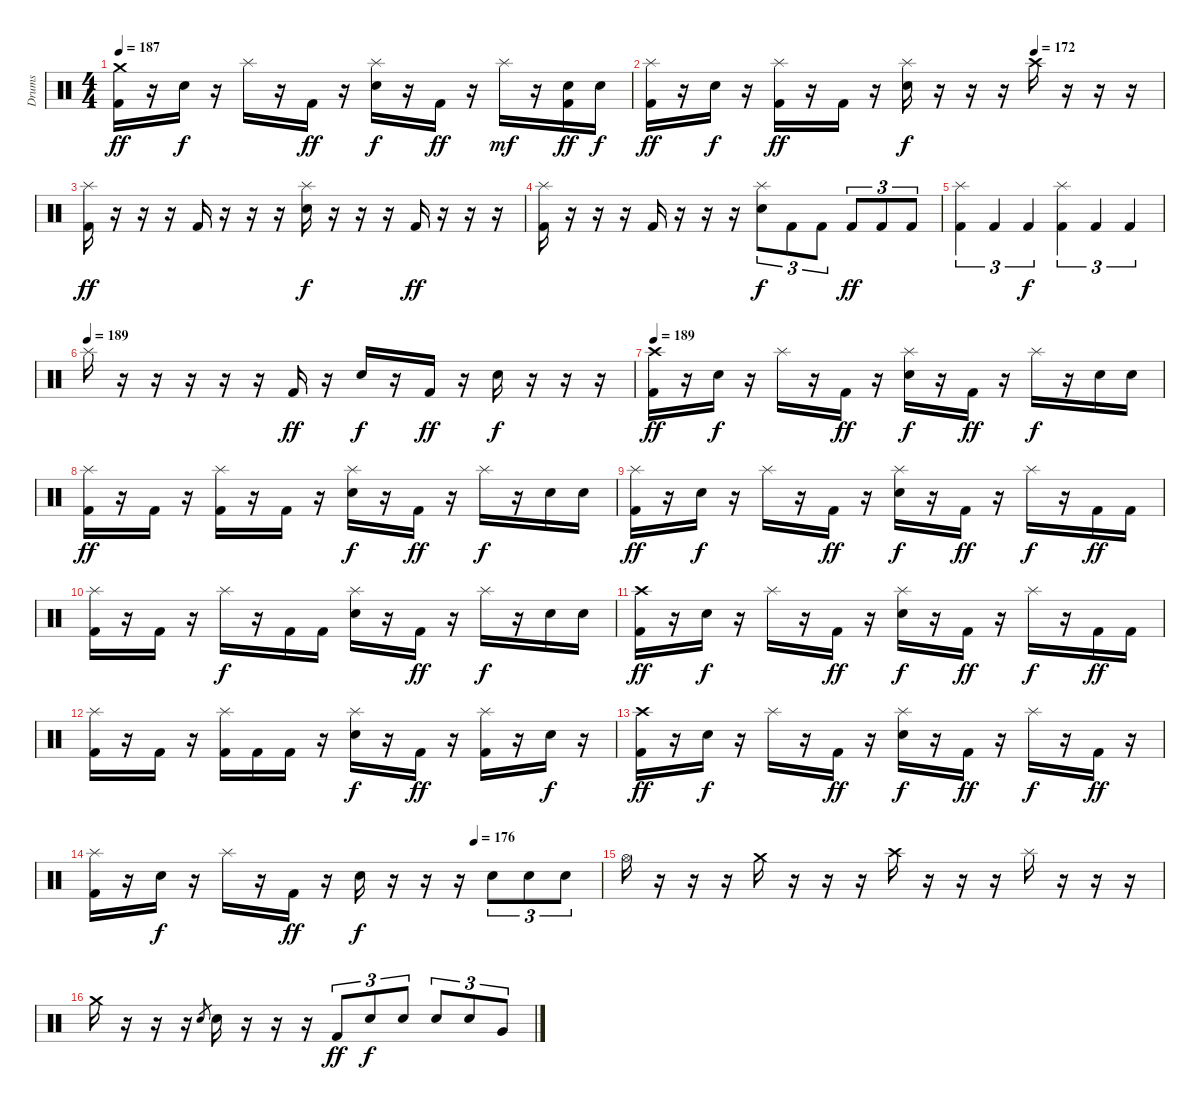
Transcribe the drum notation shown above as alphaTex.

\track ("Drums" "Drums") {instrument percussion}
\staff {score}
\articulation defaults
\ts (4 4)
\tempo 187
\clef neutral
\ks c
("Crash medium (hit)" "Kick (hit) 2").16{dy ff} r.16 "Electric Snare (hit)".16{dy f} r.16 "Splash (hit)".16 r.16 "Kick (hit) 2".16{dy ff} r.16 ("Splash (hit)" "Electric Snare (hit)").16{dy f} r.16 "Kick (hit) 2".16{dy ff} r.16 "Splash (hit)".16{dy mf} r.16 ("Electric Snare (hit)" "Kick (hit) 2").16{dy ff} "Electric Snare (hit)".16{dy f} |
\tempo (172 0.75)
("Splash (hit)" "Kick (hit) 2").16{dy ff} r.16 "Electric Snare (hit)".16{dy f} r.16 ("Splash (hit)" "Kick (hit) 2").16{dy ff} r.16 "Kick (hit) 2".16 r.16 ("Splash (hit)" "Electric Snare (hit)").16{dy f} r.16 r.16 r.16 "Crash high (hit)".16 r.16 r.16 r.16 |
("Splash (hit)" "Kick (hit) 2").16{dy ff} r.16 r.16 r.16 "Kick (hit) 2".16 r.16 r.16 r.16 ("Splash (hit)" "Electric Snare (hit)").16{dy f} r.16 r.16 r.16 "Kick (hit) 2".16{dy ff} r.16 r.16 r.16 |
("Splash (hit)" "Kick (hit) 2").16 r.16 r.16 r.16 "Kick (hit) 2".16 r.16 r.16 r.16 ("Splash (hit)" "Electric Snare (hit)").8{tu (3 2) dy f} "Kick (hit) 2".8{tu (3 2)} "Kick (hit) 2".8{tu (3 2)} "Kick (hit) 2".8{tu (3 2) dy ff} "Kick (hit) 2".8{tu (3 2)} "Kick (hit) 2".8{tu (3 2)} |
("Splash (hit)" "Kick (hit) 2").4{tu (3 2)} "Kick (hit) 2".4{tu (3 2)} "Kick (hit) 2".4{tu (3 2) dy f} ("Splash (hit)" "Kick (hit) 2").4{tu (3 2)} "Kick (hit) 2".4{tu (3 2)} "Kick (hit) 2".4{tu (3 2)} |
\tempo (189)
"Splash (hit)".16 r.16 r.16 r.16 r.16 r.16 "Kick (hit) 2".16{dy ff} r.16 "Electric Snare (hit)".16{dy f} r.16 "Kick (hit) 2".16{dy ff} r.16 "Electric Snare (hit)".16{dy f} r.16 r.16 r.16 |
\tempo 189
("Crash high (hit)" "Kick (hit) 2").16{dy ff} r.16 "Electric Snare (hit)".16{dy f} r.16 "Splash (hit)".16 r.16 "Kick (hit) 2".16{dy ff} r.16 ("Splash (hit)" "Electric Snare (hit)").16{dy f} r.16 "Kick (hit) 2".16{dy ff} r.16 "Splash (hit)".16{dy f} r.16 "Electric Snare (hit)".16 "Electric Snare (hit)".16 |
("Splash (hit)" "Kick (hit) 2").16{dy ff} r.16 "Kick (hit) 2".16 r.16 ("Splash (hit)" "Kick (hit) 2").16 r.16 "Kick (hit) 2".16 r.16 ("Splash (hit)" "Electric Snare (hit)").16{dy f} r.16 "Kick (hit) 2".16{dy ff} r.16 "Splash (hit)".16{dy f} r.16 "Electric Snare (hit)".16 "Electric Snare (hit)".16 |
("Splash (hit)" "Kick (hit) 2").16{dy ff} r.16 "Electric Snare (hit)".16{dy f} r.16 "Splash (hit)".16 r.16 "Kick (hit) 2".16{dy ff} r.16 ("Splash (hit)" "Electric Snare (hit)").16{dy f} r.16 "Kick (hit) 2".16{dy ff} r.16 "Splash (hit)".16{dy f} r.16 "Kick (hit) 2".16{dy ff} "Kick (hit) 2".16 |
("Splash (hit)" "Kick (hit) 2").16 r.16 "Kick (hit) 2".16 r.16 "Splash (hit)".16{dy f} r.16 "Kick (hit) 2".16 "Kick (hit) 2".16 ("Splash (hit)" "Electric Snare (hit)").16 r.16 "Kick (hit) 2".16{dy ff} r.16 "Splash (hit)".16{dy f} r.16 "Electric Snare (hit)".16 "Electric Snare (hit)".16 |
("Crash high (hit)" "Kick (hit) 2").16{dy ff} r.16 "Electric Snare (hit)".16{dy f} r.16 "Splash (hit)".16 r.16 "Kick (hit) 2".16{dy ff} r.16 ("Splash (hit)" "Electric Snare (hit)").16{dy f} r.16 "Kick (hit) 2".16{dy ff} r.16 "Splash (hit)".16{dy f} r.16 "Kick (hit) 2".16{dy ff} "Kick (hit) 2".16 |
("Splash (hit)" "Kick (hit) 2").16 r.16 "Kick (hit) 2".16 r.16 ("Splash (hit)" "Kick (hit) 2").16 "Kick (hit) 2".16 "Kick (hit) 2".16 r.16 ("Splash (hit)" "Electric Snare (hit)").16{dy f} r.16 "Kick (hit) 2".16{dy ff} r.16 ("Splash (hit)" "Kick (hit) 2").16 r.16 "Electric Snare (hit)".16{dy f} r.16 |
("Crash high (hit)" "Kick (hit) 2").16{dy ff} r.16 "Electric Snare (hit)".16{dy f} r.16 "Splash (hit)".16 r.16 "Kick (hit) 2".16{dy ff} r.16 ("Splash (hit)" "Electric Snare (hit)").16{dy f} r.16 "Kick (hit) 2".16{dy ff} r.16 "Splash (hit)".16{dy f} r.16 "Kick (hit) 2".16{dy ff} r.16 |
\tempo (176 0.75)
("Splash (hit)" "Kick (hit) 2").16 r.16 "Electric Snare (hit)".16{dy f} r.16 "Splash (hit)".16 r.16 "Kick (hit) 2".16{dy ff} r.16 "Electric Snare (hit)".16{dy f} r.16 r.16 r.16 "Electric Snare (hit)".8{tu (3 2)} "Electric Snare (hit)".8{tu (3 2)} "Electric Snare (hit)".8{tu (3 2)} |
"Hi-Hat (open)".16 r.16 r.16 r.16 "Crash medium (hit)".16 r.16 r.16 r.16 "Crash high (hit)".16 r.16 r.16 r.16 "Splash (hit)".16 r.16 r.16 r.16 |
"Crash medium (hit)".16 r.16 r.16 r.16 "Electric Snare (hit)".8{gr} "Electric Snare (hit)".16 r.16 r.16 r.16 "Kick (hit) 2".8{tu (3 2) dy ff} "Electric Snare (hit)".8{tu (3 2) dy f} "Electric Snare (hit)".8{tu (3 2)} "Electric Snare (hit)".8{tu (3 2)} "Electric Snare (hit)".8{tu (3 2)} "Very Low Tom (hit)".8{tu (3 2)}
